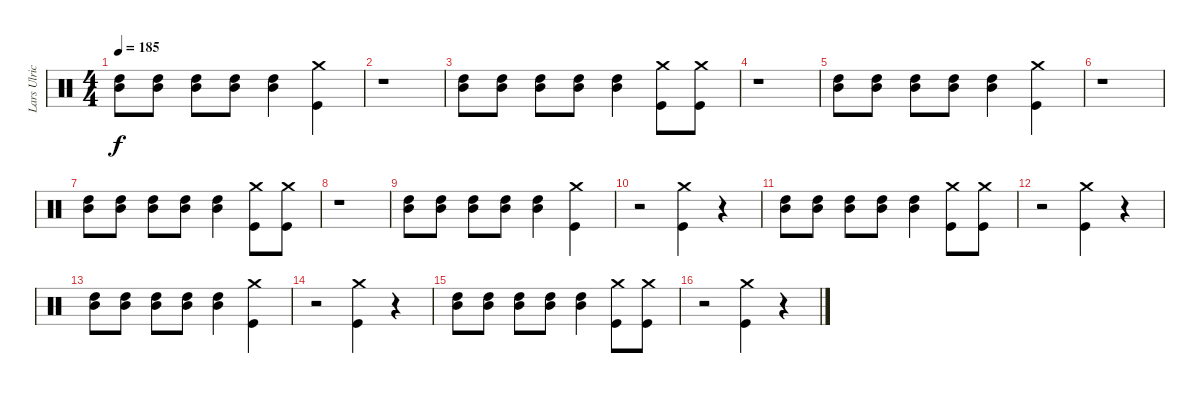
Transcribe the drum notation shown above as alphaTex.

\track ("Lars Ulrich (Drums)" "Lars Ulric") {instrument percussion}
\staff {score}
\articulation defaults
\ts (4 4)
\tempo 185
\clef neutral
\ks c
("High Tom (hit)" "Mid Tom (hit)").8{dy f} ("High Tom (hit)" "Mid Tom (hit)").8 ("High Tom (hit)" "Mid Tom (hit)").8 ("High Tom (hit)" "Mid Tom (hit)").8 ("High Tom (hit)" "Mid Tom (hit)").4 ("Crash medium (hit)" "Kick (hit)").4 |
r.1 |
("High Tom (hit)" "Mid Tom (hit)").8 ("High Tom (hit)" "Mid Tom (hit)").8 ("High Tom (hit)" "Mid Tom (hit)").8 ("High Tom (hit)" "Mid Tom (hit)").8 ("High Tom (hit)" "Mid Tom (hit)").4 ("Crash medium (hit)" "Kick (hit)").8 ("Kick (hit)" "Crash medium (hit)").8 |
r.1 |
("High Tom (hit)" "Mid Tom (hit)").8 ("High Tom (hit)" "Mid Tom (hit)").8 ("High Tom (hit)" "Mid Tom (hit)").8 ("High Tom (hit)" "Mid Tom (hit)").8 ("High Tom (hit)" "Mid Tom (hit)").4 ("Crash medium (hit)" "Kick (hit)").4 |
r.1 |
("High Tom (hit)" "Mid Tom (hit)").8 ("High Tom (hit)" "Mid Tom (hit)").8 ("High Tom (hit)" "Mid Tom (hit)").8 ("High Tom (hit)" "Mid Tom (hit)").8 ("High Tom (hit)" "Mid Tom (hit)").4 ("Crash medium (hit)" "Kick (hit)").8 ("Kick (hit)" "Crash medium (hit)").8 |
r.1 |
("High Tom (hit)" "Mid Tom (hit)").8 ("High Tom (hit)" "Mid Tom (hit)").8 ("High Tom (hit)" "Mid Tom (hit)").8 ("High Tom (hit)" "Mid Tom (hit)").8 ("High Tom (hit)" "Mid Tom (hit)").4 ("Crash medium (hit)" "Kick (hit)").4 |
r.2 ("Kick (hit)" "Crash medium (hit)").4 r.4 |
("High Tom (hit)" "Mid Tom (hit)").8 ("High Tom (hit)" "Mid Tom (hit)").8 ("High Tom (hit)" "Mid Tom (hit)").8 ("High Tom (hit)" "Mid Tom (hit)").8 ("High Tom (hit)" "Mid Tom (hit)").4 ("Crash medium (hit)" "Kick (hit)").8 ("Kick (hit)" "Crash medium (hit)").8 |
r.2 ("Kick (hit)" "Crash medium (hit)").4 r.4 |
("High Tom (hit)" "Mid Tom (hit)").8 ("High Tom (hit)" "Mid Tom (hit)").8 ("High Tom (hit)" "Mid Tom (hit)").8 ("High Tom (hit)" "Mid Tom (hit)").8 ("High Tom (hit)" "Mid Tom (hit)").4 ("Crash medium (hit)" "Kick (hit)").4 |
r.2 ("Kick (hit)" "Crash medium (hit)").4 r.4 |
("High Tom (hit)" "Mid Tom (hit)").8 ("High Tom (hit)" "Mid Tom (hit)").8 ("High Tom (hit)" "Mid Tom (hit)").8 ("High Tom (hit)" "Mid Tom (hit)").8 ("High Tom (hit)" "Mid Tom (hit)").4 ("Crash medium (hit)" "Kick (hit)").8 ("Kick (hit)" "Crash medium (hit)").8 |
r.2 ("Kick (hit)" "Crash medium (hit)").4 r.4
